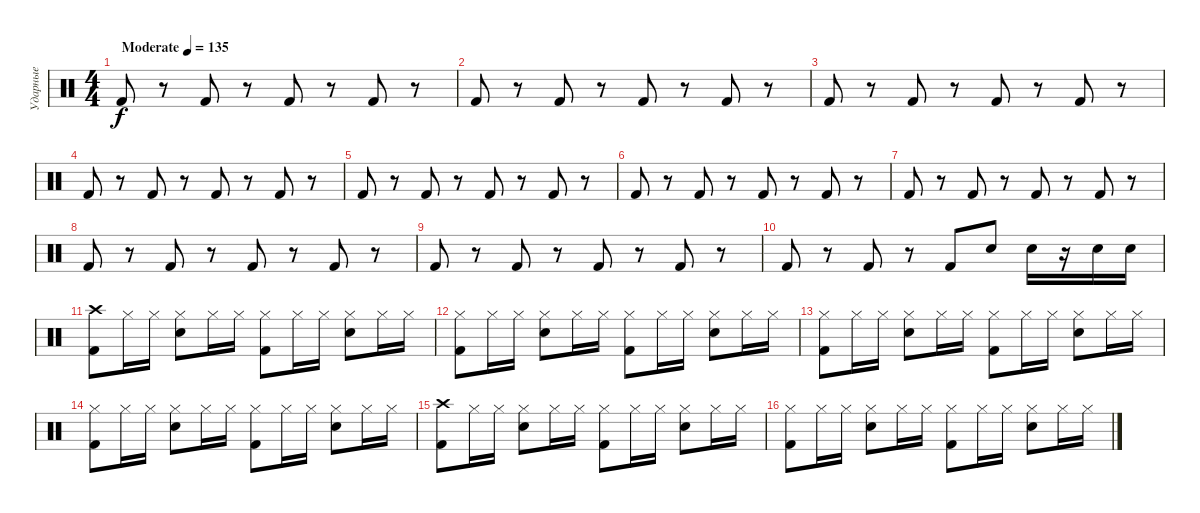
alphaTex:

\track ("Ударные" "Ударные") {instrument percussion}
\staff {score}
\articulation defaults
\ts (4 4)
\tempo (135 "Moderate")
\clef neutral
\ks c "Kick (hit) 2".8{dy f}
r.8 "Kick (hit) 2".8 r.8 "Kick (hit) 2".8 r.8 "Kick (hit) 2".8 r.8 |
"Kick (hit) 2".8 r.8 "Kick (hit) 2".8 r.8 "Kick (hit) 2".8 r.8 "Kick (hit) 2".8 r.8 |
"Kick (hit) 2".8 r.8 "Kick (hit) 2".8 r.8 "Kick (hit) 2".8 r.8 "Kick (hit) 2".8 r.8 |
"Kick (hit) 2".8 r.8 "Kick (hit) 2".8 r.8 "Kick (hit) 2".8 r.8 "Kick (hit) 2".8 r.8 |
"Kick (hit) 2".8 r.8 "Kick (hit) 2".8 r.8 "Kick (hit) 2".8 r.8 "Kick (hit) 2".8 r.8 |
"Kick (hit) 2".8 r.8 "Kick (hit) 2".8 r.8 "Kick (hit) 2".8 r.8 "Kick (hit) 2".8 r.8 |
"Kick (hit) 2".8 r.8 "Kick (hit) 2".8 r.8 "Kick (hit) 2".8 r.8 "Kick (hit) 2".8 r.8 |
"Kick (hit) 2".8 r.8 "Kick (hit) 2".8 r.8 "Kick (hit) 2".8 r.8 "Kick (hit) 2".8 r.8 |
"Kick (hit) 2".8 r.8 "Kick (hit) 2".8 r.8 "Kick (hit) 2".8 r.8 "Kick (hit) 2".8 r.8 |
"Kick (hit) 2".8 r.8 "Kick (hit) 2".8 r.8 "Kick (hit) 2".8 "Electric Snare (hit)".8 "Electric Snare (hit)".16 r.16 "Electric Snare (hit)".16 "Electric Snare (hit)".16 |
("Crash high (hit)" "Kick (hit) 2").8 "Hi-Hat (closed)".16 "Hi-Hat (closed)".16 ("Hi-Hat (closed)" "Electric Snare (hit)").8 "Hi-Hat (closed)".16 "Hi-Hat (closed)".16 ("Hi-Hat (closed)" "Kick (hit) 2").8 "Hi-Hat (closed)".16 "Hi-Hat (closed)".16 ("Hi-Hat (closed)" "Electric Snare (hit)").8 "Hi-Hat (closed)".16 "Hi-Hat (closed)".16 |
("Hi-Hat (closed)" "Kick (hit) 2").8 "Hi-Hat (closed)".16 "Hi-Hat (closed)".16 ("Hi-Hat (closed)" "Electric Snare (hit)").8 "Hi-Hat (closed)".16 "Hi-Hat (closed)".16 ("Hi-Hat (closed)" "Kick (hit) 2").8 "Hi-Hat (closed)".16 "Hi-Hat (closed)".16 ("Hi-Hat (closed)" "Electric Snare (hit)").8 "Hi-Hat (closed)".16 "Hi-Hat (closed)".16 |
("Hi-Hat (closed)" "Kick (hit) 2").8 "Hi-Hat (closed)".16 "Hi-Hat (closed)".16 ("Hi-Hat (closed)" "Electric Snare (hit)").8 "Hi-Hat (closed)".16 "Hi-Hat (closed)".16 ("Hi-Hat (closed)" "Kick (hit) 2").8 "Hi-Hat (closed)".16 "Hi-Hat (closed)".16 ("Hi-Hat (closed)" "Electric Snare (hit)").8 "Hi-Hat (closed)".16 "Hi-Hat (closed)".16 |
("Hi-Hat (closed)" "Kick (hit) 2").8 "Hi-Hat (closed)".16 "Hi-Hat (closed)".16 ("Hi-Hat (closed)" "Electric Snare (hit)").8 "Hi-Hat (closed)".16 "Hi-Hat (closed)".16 ("Hi-Hat (closed)" "Kick (hit) 2").8 "Hi-Hat (closed)".16 "Hi-Hat (closed)".16 ("Hi-Hat (closed)" "Electric Snare (hit)").8 "Hi-Hat (closed)".16 "Hi-Hat (closed)".16 |
("Crash high (hit)" "Kick (hit) 2").8 "Hi-Hat (closed)".16 "Hi-Hat (closed)".16 ("Hi-Hat (closed)" "Electric Snare (hit)").8 "Hi-Hat (closed)".16 "Hi-Hat (closed)".16 ("Hi-Hat (closed)" "Kick (hit) 2").8 "Hi-Hat (closed)".16 "Hi-Hat (closed)".16 ("Hi-Hat (closed)" "Electric Snare (hit)").8 "Hi-Hat (closed)".16 "Hi-Hat (closed)".16 |
("Hi-Hat (closed)" "Kick (hit) 2").8 "Hi-Hat (closed)".16 "Hi-Hat (closed)".16 ("Hi-Hat (closed)" "Electric Snare (hit)").8 "Hi-Hat (closed)".16 "Hi-Hat (closed)".16 ("Hi-Hat (closed)" "Kick (hit) 2").8 "Hi-Hat (closed)".16 "Hi-Hat (closed)".16 ("Hi-Hat (closed)" "Electric Snare (hit)").8 "Hi-Hat (closed)".16 "Hi-Hat (closed)".16
